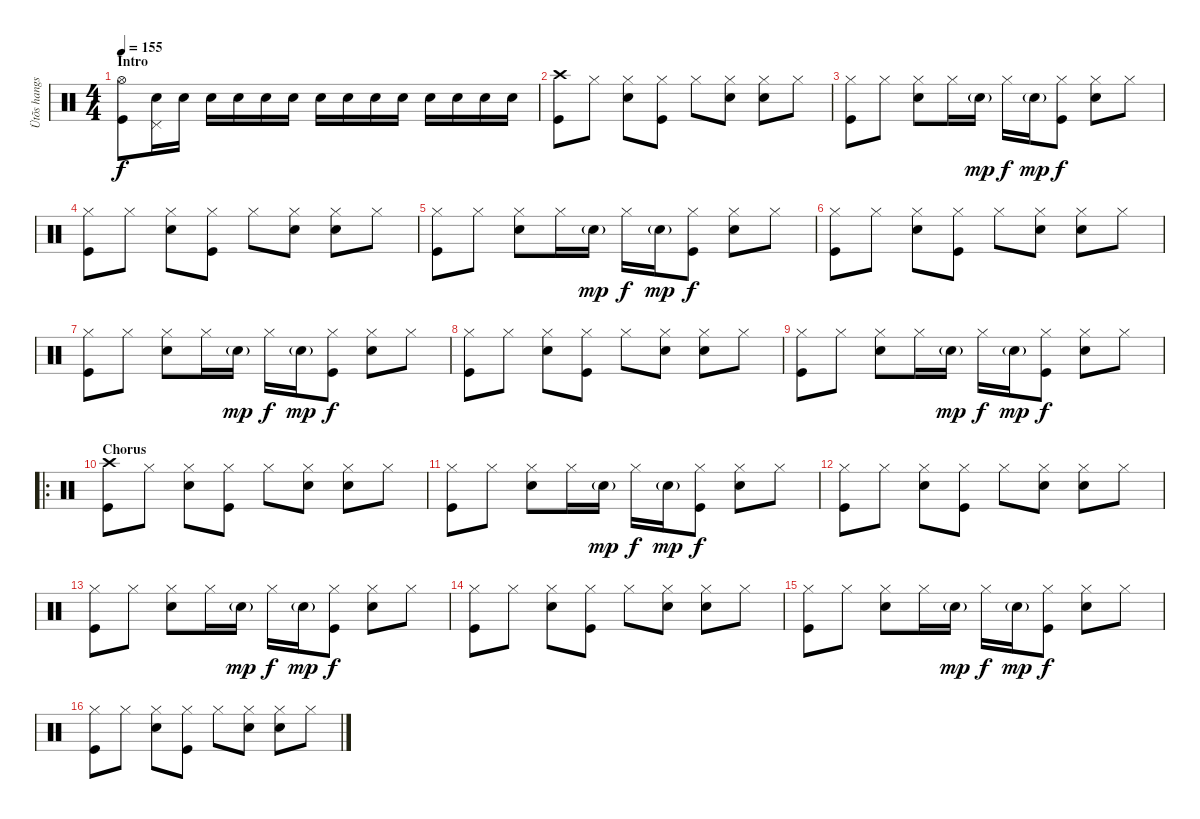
\track ("Ütõs hangszer" "Ütõs hangs") {instrument percussion}
\staff {score}
\articulation defaults
\ts (4 4)
\section ("" "Intro")
\tempo 155
\clef neutral
\ks c
("Hi-Hat (open)" "Kick (hit)").8{dy f} ("Pedal Hi-Hat (hit)" "Electric Snare (hit)").16 "Electric Snare (hit)".16 "Electric Snare (hit)".16 "Electric Snare (hit)".16 "Electric Snare (hit)".16 "Electric Snare (hit)".16 "Electric Snare (hit)".16 "Electric Snare (hit)".16 "Electric Snare (hit)".16 "Electric Snare (hit)".16 "Electric Snare (hit)".16 "Electric Snare (hit)".16 "Electric Snare (hit)".16 "Electric Snare (hit)".16 |
("Crash high (hit)" "Kick (hit)").8 "Hi-Hat (closed)".8 ("Hi-Hat (closed)" "Electric Snare (hit)").8 ("Hi-Hat (closed)" "Kick (hit)").8 "Hi-Hat (closed)".8 ("Hi-Hat (closed)" "Electric Snare (hit)").8 ("Hi-Hat (closed)" "Electric Snare (hit)").8 "Hi-Hat (closed)".8 |
("Hi-Hat (closed)" "Kick (hit)").8 "Hi-Hat (closed)".8 ("Hi-Hat (closed)" "Electric Snare (hit)").8 "Hi-Hat (closed)".16 "Electric Snare (hit)"{g}.16{dy mp} "Hi-Hat (closed)".16{dy f} "Electric Snare (hit)"{g}.16{dy mp} ("Hi-Hat (closed)" "Kick (hit)").8{dy f} ("Hi-Hat (closed)" "Electric Snare (hit)").8 "Hi-Hat (closed)".8 |
("Hi-Hat (closed)" "Kick (hit)").8 "Hi-Hat (closed)".8 ("Hi-Hat (closed)" "Electric Snare (hit)").8 ("Hi-Hat (closed)" "Kick (hit)").8 "Hi-Hat (closed)".8 ("Hi-Hat (closed)" "Electric Snare (hit)").8 ("Hi-Hat (closed)" "Electric Snare (hit)").8 "Hi-Hat (closed)".8 |
("Hi-Hat (closed)" "Kick (hit)").8 "Hi-Hat (closed)".8 ("Hi-Hat (closed)" "Electric Snare (hit)").8 "Hi-Hat (closed)".16 "Electric Snare (hit)"{g}.16{dy mp} "Hi-Hat (closed)".16{dy f} "Electric Snare (hit)"{g}.16{dy mp} ("Hi-Hat (closed)" "Kick (hit)").8{dy f} ("Hi-Hat (closed)" "Electric Snare (hit)").8 "Hi-Hat (closed)".8 |
("Hi-Hat (closed)" "Kick (hit)").8 "Hi-Hat (closed)".8 ("Hi-Hat (closed)" "Electric Snare (hit)").8 ("Hi-Hat (closed)" "Kick (hit)").8 "Hi-Hat (closed)".8 ("Hi-Hat (closed)" "Electric Snare (hit)").8 ("Hi-Hat (closed)" "Electric Snare (hit)").8 "Hi-Hat (closed)".8 |
("Hi-Hat (closed)" "Kick (hit)").8 "Hi-Hat (closed)".8 ("Hi-Hat (closed)" "Electric Snare (hit)").8 "Hi-Hat (closed)".16 "Electric Snare (hit)"{g}.16{dy mp} "Hi-Hat (closed)".16{dy f} "Electric Snare (hit)"{g}.16{dy mp} ("Hi-Hat (closed)" "Kick (hit)").8{dy f} ("Hi-Hat (closed)" "Electric Snare (hit)").8 "Hi-Hat (closed)".8 |
("Hi-Hat (closed)" "Kick (hit)").8 "Hi-Hat (closed)".8 ("Hi-Hat (closed)" "Electric Snare (hit)").8 ("Hi-Hat (closed)" "Kick (hit)").8 "Hi-Hat (closed)".8 ("Hi-Hat (closed)" "Electric Snare (hit)").8 ("Hi-Hat (closed)" "Electric Snare (hit)").8 "Hi-Hat (closed)".8 |
("Hi-Hat (closed)" "Kick (hit)").8 "Hi-Hat (closed)".8 ("Hi-Hat (closed)" "Electric Snare (hit)").8 "Hi-Hat (closed)".16 "Electric Snare (hit)"{g}.16{dy mp} "Hi-Hat (closed)".16{dy f} "Electric Snare (hit)"{g}.16{dy mp} ("Hi-Hat (closed)" "Kick (hit)").8{dy f} ("Hi-Hat (closed)" "Electric Snare (hit)").8 "Hi-Hat (closed)".8 |
\ro
\section ("" "Chorus")
("Crash high (hit)" "Kick (hit)").8 "Hi-Hat (closed)".8 ("Hi-Hat (closed)" "Electric Snare (hit)").8 ("Hi-Hat (closed)" "Kick (hit)").8 "Hi-Hat (closed)".8 ("Hi-Hat (closed)" "Electric Snare (hit)").8 ("Hi-Hat (closed)" "Electric Snare (hit)").8 "Hi-Hat (closed)".8 |
("Hi-Hat (closed)" "Kick (hit)").8 "Hi-Hat (closed)".8 ("Hi-Hat (closed)" "Electric Snare (hit)").8 "Hi-Hat (closed)".16 "Electric Snare (hit)"{g}.16{dy mp} "Hi-Hat (closed)".16{dy f} "Electric Snare (hit)"{g}.16{dy mp} ("Hi-Hat (closed)" "Kick (hit)").8{dy f} ("Hi-Hat (closed)" "Electric Snare (hit)").8 "Hi-Hat (closed)".8 |
("Hi-Hat (closed)" "Kick (hit)").8 "Hi-Hat (closed)".8 ("Hi-Hat (closed)" "Electric Snare (hit)").8 ("Hi-Hat (closed)" "Kick (hit)").8 "Hi-Hat (closed)".8 ("Hi-Hat (closed)" "Electric Snare (hit)").8 ("Hi-Hat (closed)" "Electric Snare (hit)").8 "Hi-Hat (closed)".8 |
("Hi-Hat (closed)" "Kick (hit)").8 "Hi-Hat (closed)".8 ("Hi-Hat (closed)" "Electric Snare (hit)").8 "Hi-Hat (closed)".16 "Electric Snare (hit)"{g}.16{dy mp} "Hi-Hat (closed)".16{dy f} "Electric Snare (hit)"{g}.16{dy mp} ("Hi-Hat (closed)" "Kick (hit)").8{dy f} ("Hi-Hat (closed)" "Electric Snare (hit)").8 "Hi-Hat (closed)".8 |
("Hi-Hat (closed)" "Kick (hit)").8 "Hi-Hat (closed)".8 ("Hi-Hat (closed)" "Electric Snare (hit)").8 ("Hi-Hat (closed)" "Kick (hit)").8 "Hi-Hat (closed)".8 ("Hi-Hat (closed)" "Electric Snare (hit)").8 ("Hi-Hat (closed)" "Electric Snare (hit)").8 "Hi-Hat (closed)".8 |
("Hi-Hat (closed)" "Kick (hit)").8 "Hi-Hat (closed)".8 ("Hi-Hat (closed)" "Electric Snare (hit)").8 "Hi-Hat (closed)".16 "Electric Snare (hit)"{g}.16{dy mp} "Hi-Hat (closed)".16{dy f} "Electric Snare (hit)"{g}.16{dy mp} ("Hi-Hat (closed)" "Kick (hit)").8{dy f} ("Hi-Hat (closed)" "Electric Snare (hit)").8 "Hi-Hat (closed)".8 |
("Hi-Hat (closed)" "Kick (hit)").8 "Hi-Hat (closed)".8 ("Hi-Hat (closed)" "Electric Snare (hit)").8 ("Hi-Hat (closed)" "Kick (hit)").8 "Hi-Hat (closed)".8 ("Hi-Hat (closed)" "Electric Snare (hit)").8 ("Hi-Hat (closed)" "Electric Snare (hit)").8 "Hi-Hat (closed)".8
